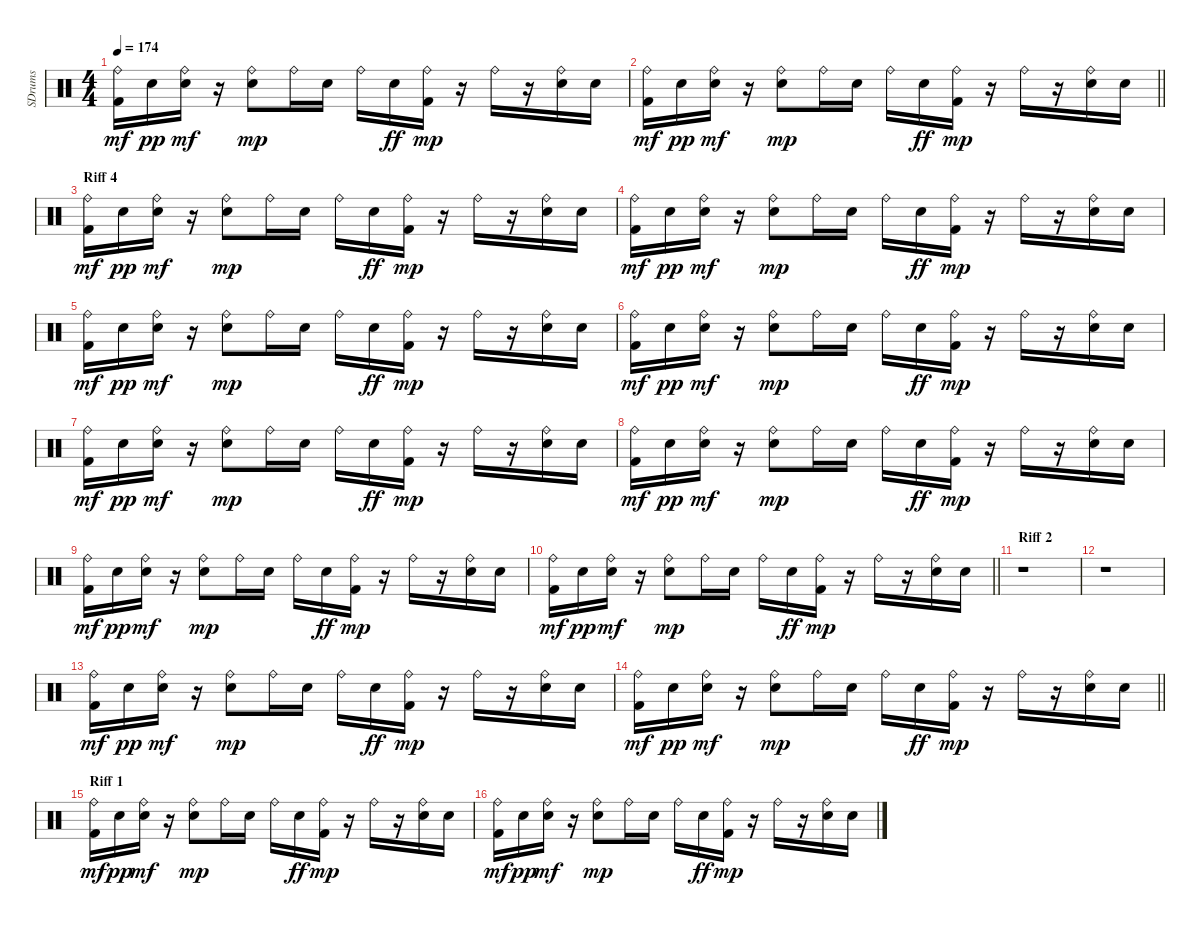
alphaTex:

\track ("SDrums" "SDrums") {instrument percussion}
\staff {score}
\articulation defaults
\ts (4 4)
\tempo 174
\clef neutral
\ks c
("Kick (hit) 2" "Ride (bell)").16{dy mf} "Snare (hit) 2".16{dy pp} ("Snare (hit) 2" "Ride (bell)").16{dy mf} r.16 ("Snare (hit) 2" "Ride (bell)").8{dy mp} "Ride (bell)".16 "Snare (hit) 2".16 "Ride (bell)".16 "Snare (hit) 2".16{dy ff} ("Kick (hit) 2" "Ride (bell)").16{dy mp} r.16 "Ride (bell)".16 r.16 ("Snare (hit) 2" "Ride (bell)").16 "Snare (hit) 2".16 |
\barLineRight lightlight
("Kick (hit) 2" "Ride (bell)").16{dy mf} "Snare (hit) 2".16{dy pp} ("Snare (hit) 2" "Ride (bell)").16{dy mf} r.16 ("Snare (hit) 2" "Ride (bell)").8{dy mp} "Ride (bell)".16 "Snare (hit) 2".16 "Ride (bell)".16 "Snare (hit) 2".16{dy ff} ("Kick (hit) 2" "Ride (bell)").16{dy mp} r.16 "Ride (bell)".16 r.16 ("Snare (hit) 2" "Ride (bell)").16 "Snare (hit) 2".16 |
\section ("" "Riff 4")
("Kick (hit) 2" "Ride (bell)").16{dy mf} "Snare (hit) 2".16{dy pp} ("Snare (hit) 2" "Ride (bell)").16{dy mf} r.16 ("Snare (hit) 2" "Ride (bell)").8{dy mp} "Ride (bell)".16 "Snare (hit) 2".16 "Ride (bell)".16 "Snare (hit) 2".16{dy ff} ("Kick (hit) 2" "Ride (bell)").16{dy mp} r.16 "Ride (bell)".16 r.16 ("Snare (hit) 2" "Ride (bell)").16 "Snare (hit) 2".16 |
("Kick (hit) 2" "Ride (bell)").16{dy mf} "Snare (hit) 2".16{dy pp} ("Snare (hit) 2" "Ride (bell)").16{dy mf} r.16 ("Snare (hit) 2" "Ride (bell)").8{dy mp} "Ride (bell)".16 "Snare (hit) 2".16 "Ride (bell)".16 "Snare (hit) 2".16{dy ff} ("Kick (hit) 2" "Ride (bell)").16{dy mp} r.16 "Ride (bell)".16 r.16 ("Snare (hit) 2" "Ride (bell)").16 "Snare (hit) 2".16 |
("Kick (hit) 2" "Ride (bell)").16{dy mf} "Snare (hit) 2".16{dy pp} ("Snare (hit) 2" "Ride (bell)").16{dy mf} r.16 ("Snare (hit) 2" "Ride (bell)").8{dy mp} "Ride (bell)".16 "Snare (hit) 2".16 "Ride (bell)".16 "Snare (hit) 2".16{dy ff} ("Kick (hit) 2" "Ride (bell)").16{dy mp} r.16 "Ride (bell)".16 r.16 ("Snare (hit) 2" "Ride (bell)").16 "Snare (hit) 2".16 |
("Kick (hit) 2" "Ride (bell)").16{dy mf} "Snare (hit) 2".16{dy pp} ("Snare (hit) 2" "Ride (bell)").16{dy mf} r.16 ("Snare (hit) 2" "Ride (bell)").8{dy mp} "Ride (bell)".16 "Snare (hit) 2".16 "Ride (bell)".16 "Snare (hit) 2".16{dy ff} ("Kick (hit) 2" "Ride (bell)").16{dy mp} r.16 "Ride (bell)".16 r.16 ("Snare (hit) 2" "Ride (bell)").16 "Snare (hit) 2".16 |
("Kick (hit) 2" "Ride (bell)").16{dy mf} "Snare (hit) 2".16{dy pp} ("Snare (hit) 2" "Ride (bell)").16{dy mf} r.16 ("Snare (hit) 2" "Ride (bell)").8{dy mp} "Ride (bell)".16 "Snare (hit) 2".16 "Ride (bell)".16 "Snare (hit) 2".16{dy ff} ("Kick (hit) 2" "Ride (bell)").16{dy mp} r.16 "Ride (bell)".16 r.16 ("Snare (hit) 2" "Ride (bell)").16 "Snare (hit) 2".16 |
("Kick (hit) 2" "Ride (bell)").16{dy mf} "Snare (hit) 2".16{dy pp} ("Snare (hit) 2" "Ride (bell)").16{dy mf} r.16 ("Snare (hit) 2" "Ride (bell)").8{dy mp} "Ride (bell)".16 "Snare (hit) 2".16 "Ride (bell)".16 "Snare (hit) 2".16{dy ff} ("Kick (hit) 2" "Ride (bell)").16{dy mp} r.16 "Ride (bell)".16 r.16 ("Snare (hit) 2" "Ride (bell)").16 "Snare (hit) 2".16 |
("Kick (hit) 2" "Ride (bell)").16{dy mf} "Snare (hit) 2".16{dy pp} ("Snare (hit) 2" "Ride (bell)").16{dy mf} r.16 ("Snare (hit) 2" "Ride (bell)").8{dy mp} "Ride (bell)".16 "Snare (hit) 2".16 "Ride (bell)".16 "Snare (hit) 2".16{dy ff} ("Kick (hit) 2" "Ride (bell)").16{dy mp} r.16 "Ride (bell)".16 r.16 ("Snare (hit) 2" "Ride (bell)").16 "Snare (hit) 2".16 |
\barLineRight lightlight
("Kick (hit) 2" "Ride (bell)").16{dy mf} "Snare (hit) 2".16{dy pp} ("Snare (hit) 2" "Ride (bell)").16{dy mf} r.16 ("Snare (hit) 2" "Ride (bell)").8{dy mp} "Ride (bell)".16 "Snare (hit) 2".16 "Ride (bell)".16 "Snare (hit) 2".16{dy ff} ("Kick (hit) 2" "Ride (bell)").16{dy mp} r.16 "Ride (bell)".16 r.16 ("Snare (hit) 2" "Ride (bell)").16 "Snare (hit) 2".16 |
\section ("" "Riff 2")
r.1 |
r.1 |
("Kick (hit) 2" "Ride (bell)").16{dy mf} "Snare (hit) 2".16{dy pp} ("Snare (hit) 2" "Ride (bell)").16{dy mf} r.16 ("Snare (hit) 2" "Ride (bell)").8{dy mp} "Ride (bell)".16 "Snare (hit) 2".16 "Ride (bell)".16 "Snare (hit) 2".16{dy ff} ("Kick (hit) 2" "Ride (bell)").16{dy mp} r.16 "Ride (bell)".16 r.16 ("Snare (hit) 2" "Ride (bell)").16 "Snare (hit) 2".16 |
\barLineRight lightlight
("Kick (hit) 2" "Ride (bell)").16{dy mf} "Snare (hit) 2".16{dy pp} ("Snare (hit) 2" "Ride (bell)").16{dy mf} r.16 ("Snare (hit) 2" "Ride (bell)").8{dy mp} "Ride (bell)".16 "Snare (hit) 2".16 "Ride (bell)".16 "Snare (hit) 2".16{dy ff} ("Kick (hit) 2" "Ride (bell)").16{dy mp} r.16 "Ride (bell)".16 r.16 ("Snare (hit) 2" "Ride (bell)").16 "Snare (hit) 2".16 |
\section ("" "Riff 1")
("Kick (hit) 2" "Ride (bell)").16{dy mf} "Snare (hit) 2".16{dy pp} ("Snare (hit) 2" "Ride (bell)").16{dy mf} r.16 ("Snare (hit) 2" "Ride (bell)").8{dy mp} "Ride (bell)".16 "Snare (hit) 2".16 "Ride (bell)".16 "Snare (hit) 2".16{dy ff} ("Kick (hit) 2" "Ride (bell)").16{dy mp} r.16 "Ride (bell)".16 r.16 ("Snare (hit) 2" "Ride (bell)").16 "Snare (hit) 2".16 |
("Kick (hit) 2" "Ride (bell)").16{dy mf} "Snare (hit) 2".16{dy pp} ("Snare (hit) 2" "Ride (bell)").16{dy mf} r.16 ("Snare (hit) 2" "Ride (bell)").8{dy mp} "Ride (bell)".16 "Snare (hit) 2".16 "Ride (bell)".16 "Snare (hit) 2".16{dy ff} ("Kick (hit) 2" "Ride (bell)").16{dy mp} r.16 "Ride (bell)".16 r.16 ("Snare (hit) 2" "Ride (bell)").16 "Snare (hit) 2".16
